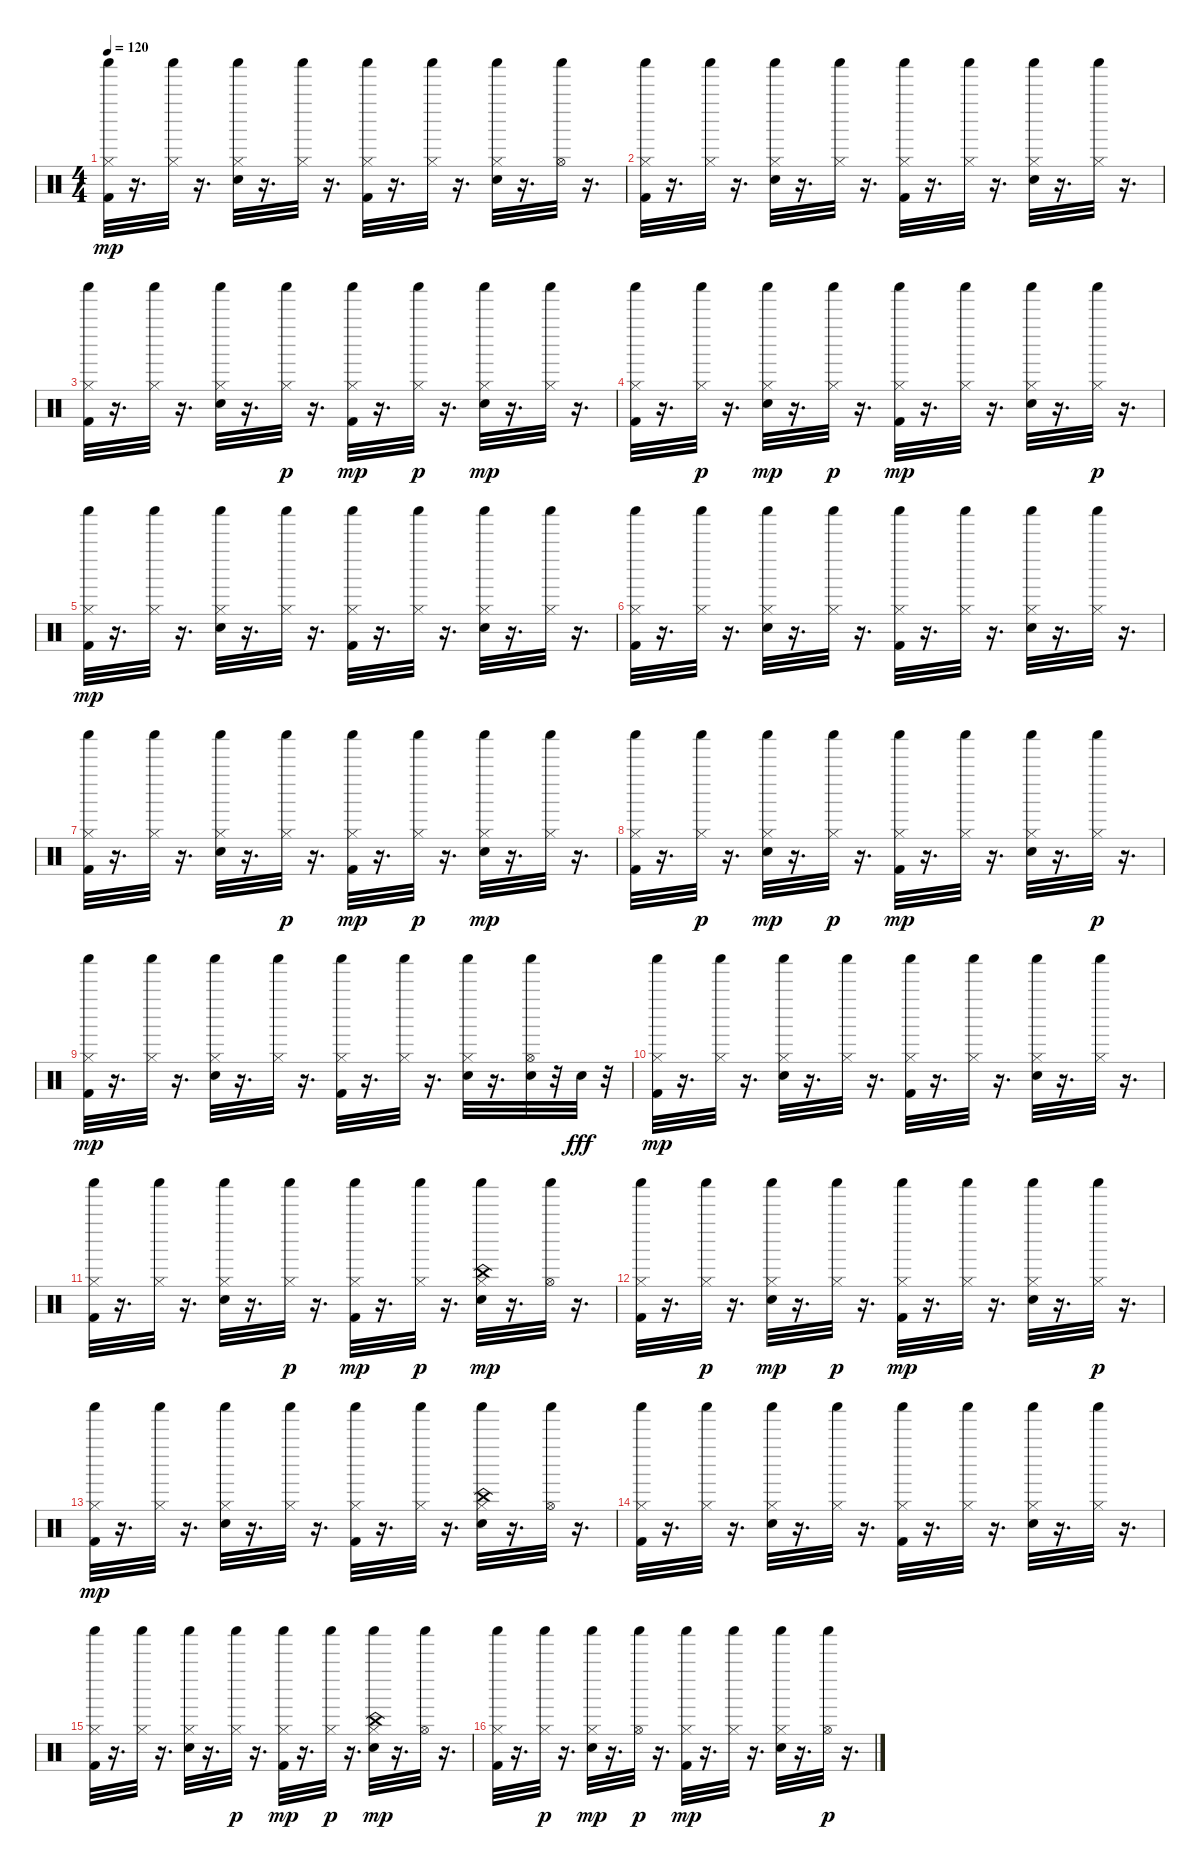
\track "" {instrument percussion}
\staff {score}
\articulation defaults
\ts (4 4)
\tempo 120
\clef neutral
\ks c
("Kick (hit) 2" "Hi-Hat (closed)" "Shaker (hit)").32{dy mp} r.16{d} ("Hi-Hat (closed)" "Shaker (hit)").32 r.16{d} ("Electric Snare (hit)" "Hi-Hat (closed)" "Shaker (hit)").32 r.16{d} ("Hi-Hat (closed)" "Shaker (hit)").32 r.16{d} ("Kick (hit) 2" "Hi-Hat (closed)" "Shaker (hit)").32 r.16{d} ("Hi-Hat (closed)" "Shaker (hit)").32 r.16{d} ("Electric Snare (hit)" "Hi-Hat (closed)" "Shaker (hit)").32 r.16{d} ("Hi-Hat (open)" "Shaker (hit)").32 r.16{d} |
("Kick (hit) 2" "Hi-Hat (closed)" "Shaker (hit)").32 r.16{d} ("Hi-Hat (closed)" "Shaker (hit)").32 r.16{d} ("Electric Snare (hit)" "Hi-Hat (closed)" "Shaker (hit)").32 r.16{d} ("Hi-Hat (closed)" "Shaker (hit)").32 r.16{d} ("Kick (hit) 2" "Hi-Hat (closed)" "Shaker (hit)").32 r.16{d} ("Hi-Hat (closed)" "Shaker (hit)").32 r.16{d} ("Electric Snare (hit)" "Hi-Hat (closed)" "Shaker (hit)").32 r.16{d} ("Hi-Hat (closed)" "Shaker (hit)").32 r.16{d} |
("Kick (hit) 2" "Hi-Hat (closed)" "Shaker (hit)").32 r.16{d} ("Hi-Hat (closed)" "Shaker (hit)").32 r.16{d} ("Electric Snare (hit)" "Hi-Hat (closed)" "Shaker (hit)").32 r.16{d} ("Hi-Hat (closed)" "Shaker (hit)").32{dy p} r.16{d} ("Kick (hit) 2" "Hi-Hat (closed)" "Shaker (hit)").32{dy mp} r.16{d} ("Hi-Hat (closed)" "Shaker (hit)").32{dy p} r.16{d} ("Electric Snare (hit)" "Hi-Hat (closed)" "Shaker (hit)").32{dy mp} r.16{d} ("Hi-Hat (closed)" "Shaker (hit)").32 r.16{d} |
("Kick (hit) 2" "Hi-Hat (closed)" "Shaker (hit)").32 r.16{d} ("Hi-Hat (closed)" "Shaker (hit)").32{dy p} r.16{d} ("Electric Snare (hit)" "Hi-Hat (closed)" "Shaker (hit)").32{dy mp} r.16{d} ("Hi-Hat (closed)" "Shaker (hit)").32{dy p} r.16{d} ("Kick (hit) 2" "Hi-Hat (closed)" "Shaker (hit)").32{dy mp} r.16{d} ("Hi-Hat (closed)" "Shaker (hit)").32 r.16{d} ("Electric Snare (hit)" "Hi-Hat (closed)" "Shaker (hit)").32 r.16{d} ("Hi-Hat (closed)" "Shaker (hit)").32{dy p} r.16{d} |
("Kick (hit) 2" "Hi-Hat (closed)" "Shaker (hit)").32{dy mp} r.16{d} ("Hi-Hat (closed)" "Shaker (hit)").32 r.16{d} ("Electric Snare (hit)" "Hi-Hat (closed)" "Shaker (hit)").32 r.16{d} ("Hi-Hat (closed)" "Shaker (hit)").32 r.16{d} ("Kick (hit) 2" "Hi-Hat (closed)" "Shaker (hit)").32 r.16{d} ("Hi-Hat (closed)" "Shaker (hit)").32 r.16{d} ("Electric Snare (hit)" "Hi-Hat (closed)" "Shaker (hit)").32 r.16{d} ("Hi-Hat (closed)" "Shaker (hit)").32 r.16{d} |
("Kick (hit) 2" "Hi-Hat (closed)" "Shaker (hit)").32 r.16{d} ("Hi-Hat (closed)" "Shaker (hit)").32 r.16{d} ("Electric Snare (hit)" "Hi-Hat (closed)" "Shaker (hit)").32 r.16{d} ("Hi-Hat (closed)" "Shaker (hit)").32 r.16{d} ("Kick (hit) 2" "Hi-Hat (closed)" "Shaker (hit)").32 r.16{d} ("Hi-Hat (closed)" "Shaker (hit)").32 r.16{d} ("Electric Snare (hit)" "Hi-Hat (closed)" "Shaker (hit)").32 r.16{d} ("Hi-Hat (closed)" "Shaker (hit)").32 r.16{d} |
("Kick (hit) 2" "Hi-Hat (closed)" "Shaker (hit)").32 r.16{d} ("Hi-Hat (closed)" "Shaker (hit)").32 r.16{d} ("Electric Snare (hit)" "Hi-Hat (closed)" "Shaker (hit)").32 r.16{d} ("Hi-Hat (closed)" "Shaker (hit)").32{dy p} r.16{d} ("Kick (hit) 2" "Hi-Hat (closed)" "Shaker (hit)").32{dy mp} r.16{d} ("Hi-Hat (closed)" "Shaker (hit)").32{dy p} r.16{d} ("Electric Snare (hit)" "Hi-Hat (closed)" "Shaker (hit)").32{dy mp} r.16{d} ("Hi-Hat (closed)" "Shaker (hit)").32 r.16{d} |
("Kick (hit) 2" "Hi-Hat (closed)" "Shaker (hit)").32 r.16{d} ("Hi-Hat (closed)" "Shaker (hit)").32{dy p} r.16{d} ("Electric Snare (hit)" "Hi-Hat (closed)" "Shaker (hit)").32{dy mp} r.16{d} ("Hi-Hat (closed)" "Shaker (hit)").32{dy p} r.16{d} ("Kick (hit) 2" "Hi-Hat (closed)" "Shaker (hit)").32{dy mp} r.16{d} ("Hi-Hat (closed)" "Shaker (hit)").32 r.16{d} ("Electric Snare (hit)" "Hi-Hat (closed)" "Shaker (hit)").32 r.16{d} ("Hi-Hat (closed)" "Shaker (hit)").32{dy p} r.16{d} |
("Kick (hit) 2" "Hi-Hat (closed)" "Shaker (hit)").32{dy mp} r.16{d} ("Hi-Hat (closed)" "Shaker (hit)").32 r.16{d} ("Electric Snare (hit)" "Hi-Hat (closed)" "Shaker (hit)").32 r.16{d} ("Hi-Hat (closed)" "Shaker (hit)").32 r.16{d} ("Kick (hit) 2" "Hi-Hat (closed)" "Shaker (hit)").32 r.16{d} ("Hi-Hat (closed)" "Shaker (hit)").32 r.16{d} ("Electric Snare (hit)" "Hi-Hat (closed)" "Shaker (hit)").32 r.16{d} ("Electric Snare (hit)" "Hi-Hat (open)" "Shaker (hit)").32 r.32 "Electric Snare (hit)".32{dy fff} r.32 |
("Kick (hit) 2" "Hi-Hat (closed)" "Shaker (hit)").32{dy mp} r.16{d} ("Hi-Hat (closed)" "Shaker (hit)").32 r.16{d} ("Electric Snare (hit)" "Hi-Hat (closed)" "Shaker (hit)").32 r.16{d} ("Hi-Hat (closed)" "Shaker (hit)").32 r.16{d} ("Kick (hit) 2" "Hi-Hat (closed)" "Shaker (hit)").32 r.16{d} ("Hi-Hat (closed)" "Shaker (hit)").32 r.16{d} ("Electric Snare (hit)" "Hi-Hat (closed)" "Shaker (hit)").32 r.16{d} ("Hi-Hat (closed)" "Shaker (hit)").32 r.16{d} |
("Kick (hit) 2" "Hi-Hat (closed)" "Shaker (hit)").32 r.16{d} ("Hi-Hat (closed)" "Shaker (hit)").32 r.16{d} ("Electric Snare (hit)" "Hi-Hat (closed)" "Shaker (hit)").32 r.16{d} ("Hi-Hat (closed)" "Shaker (hit)").32{dy p} r.16{d} ("Kick (hit) 2" "Hi-Hat (closed)" "Shaker (hit)").32{dy mp} r.16{d} ("Hi-Hat (closed)" "Shaker (hit)").32{dy p} r.16{d} ("Electric Snare (hit)" "Hi-Hat (closed)" "China (hit)" "Shaker (hit)").32{dy mp} r.16{d} ("Hi-Hat (open)" "Shaker (hit)").32 r.16{d} |
("Kick (hit) 2" "Hi-Hat (closed)" "Shaker (hit)").32 r.16{d} ("Hi-Hat (closed)" "Shaker (hit)").32{dy p} r.16{d} ("Electric Snare (hit)" "Hi-Hat (closed)" "Shaker (hit)").32{dy mp} r.16{d} ("Hi-Hat (closed)" "Shaker (hit)").32{dy p} r.16{d} ("Kick (hit) 2" "Hi-Hat (closed)" "Shaker (hit)").32{dy mp} r.16{d} ("Hi-Hat (closed)" "Shaker (hit)").32 r.16{d} ("Electric Snare (hit)" "Hi-Hat (closed)" "Shaker (hit)").32 r.16{d} ("Hi-Hat (closed)" "Shaker (hit)").32{dy p} r.16{d} |
("Kick (hit) 2" "Hi-Hat (closed)" "Shaker (hit)").32{dy mp} r.16{d} ("Hi-Hat (closed)" "Shaker (hit)").32 r.16{d} ("Electric Snare (hit)" "Hi-Hat (closed)" "Shaker (hit)").32 r.16{d} ("Hi-Hat (closed)" "Shaker (hit)").32 r.16{d} ("Kick (hit) 2" "Hi-Hat (closed)" "Shaker (hit)").32 r.16{d} ("Hi-Hat (closed)" "Shaker (hit)").32 r.16{d} ("Electric Snare (hit)" "Hi-Hat (closed)" "China (hit)" "Shaker (hit)").32 r.16{d} ("Hi-Hat (open)" "Shaker (hit)").32 r.16{d} |
("Kick (hit) 2" "Hi-Hat (closed)" "Shaker (hit)").32 r.16{d} ("Hi-Hat (closed)" "Shaker (hit)").32 r.16{d} ("Electric Snare (hit)" "Hi-Hat (closed)" "Shaker (hit)").32 r.16{d} ("Hi-Hat (closed)" "Shaker (hit)").32 r.16{d} ("Kick (hit) 2" "Hi-Hat (closed)" "Shaker (hit)").32 r.16{d} ("Hi-Hat (closed)" "Shaker (hit)").32 r.16{d} ("Electric Snare (hit)" "Hi-Hat (closed)" "Shaker (hit)").32 r.16{d} ("Hi-Hat (closed)" "Shaker (hit)").32 r.16{d} |
("Kick (hit) 2" "Hi-Hat (closed)" "Shaker (hit)").32 r.16{d} ("Hi-Hat (closed)" "Shaker (hit)").32 r.16{d} ("Electric Snare (hit)" "Hi-Hat (closed)" "Shaker (hit)").32 r.16{d} ("Hi-Hat (closed)" "Shaker (hit)").32{dy p} r.16{d} ("Kick (hit) 2" "Hi-Hat (closed)" "Shaker (hit)").32{dy mp} r.16{d} ("Hi-Hat (closed)" "Shaker (hit)").32{dy p} r.16{d} ("Electric Snare (hit)" "Hi-Hat (closed)" "China (hit)" "Shaker (hit)").32{dy mp} r.16{d} ("Hi-Hat (open)" "Shaker (hit)").32 r.16{d} |
("Kick (hit) 2" "Hi-Hat (closed)" "Shaker (hit)").32 r.16{d} ("Hi-Hat (closed)" "Shaker (hit)").32{dy p} r.16{d} ("Electric Snare (hit)" "Hi-Hat (closed)" "Shaker (hit)").32{dy mp} r.16{d} ("Hi-Hat (open)" "Shaker (hit)").32{dy p} r.16{d} ("Kick (hit) 2" "Hi-Hat (closed)" "Shaker (hit)").32{dy mp} r.16{d} ("Hi-Hat (closed)" "Shaker (hit)").32 r.16{d} ("Electric Snare (hit)" "Hi-Hat (closed)" "Shaker (hit)").32 r.16{d} ("Hi-Hat (open)" "Shaker (hit)").32{dy p} r.16{d}
